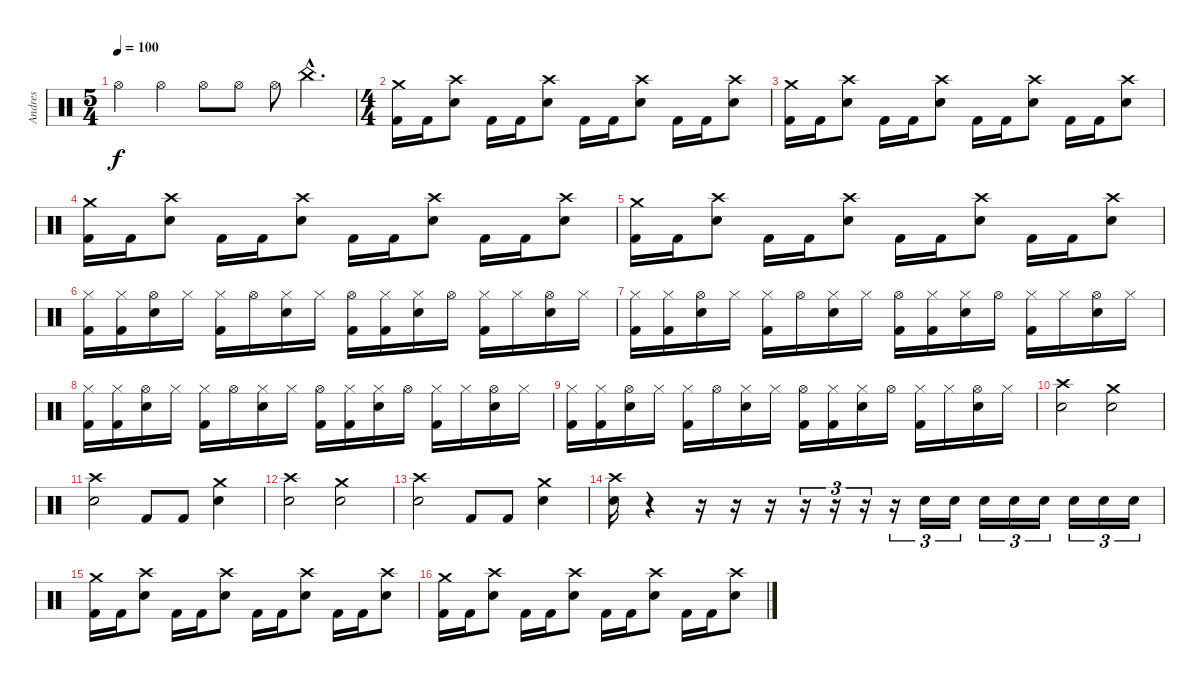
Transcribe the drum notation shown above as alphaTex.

\track ("Andres" "Andres") {instrument percussion}
\staff {score}
\articulation defaults
\ts (5 4)
\tempo 100
\clef neutral
\ks c "Hi-Hat (open)".4{dy f} "Hi-Hat (open)".4 "Hi-Hat (open)".8 "Hi-Hat (open)".8 "Hi-Hat (open)".8 "China (hit)"{hac}.4{d}
|
\ts (4 4)
("Crash medium (hit)" "Kick (hit) 2").16 "Kick (hit) 2".16 ("Crash high (hit)" "Electric Snare (hit)").8 "Kick (hit) 2".16 "Kick (hit) 2".16 ("Crash high (hit)" "Electric Snare (hit)").8 "Kick (hit) 2".16 "Kick (hit) 2".16 ("Crash high (hit)" "Electric Snare (hit)").8 "Kick (hit) 2".16 "Kick (hit) 2".16 ("Crash high (hit)" "Electric Snare (hit)").8 |
("Crash medium (hit)" "Kick (hit) 2").16 "Kick (hit) 2".16 ("Crash high (hit)" "Electric Snare (hit)").8 "Kick (hit) 2".16 "Kick (hit) 2".16 ("Crash high (hit)" "Electric Snare (hit)").8 "Kick (hit) 2".16 "Kick (hit) 2".16 ("Crash high (hit)" "Electric Snare (hit)").8 "Kick (hit) 2".16 "Kick (hit) 2".16 ("Crash high (hit)" "Electric Snare (hit)").8 |
("Crash medium (hit)" "Kick (hit) 2").16 "Kick (hit) 2".16 ("Crash high (hit)" "Electric Snare (hit)").8 "Kick (hit) 2".16 "Kick (hit) 2".16 ("Crash high (hit)" "Electric Snare (hit)").8 "Kick (hit) 2".16 "Kick (hit) 2".16 ("Crash high (hit)" "Electric Snare (hit)").8 "Kick (hit) 2".16 "Kick (hit) 2".16 ("Crash high (hit)" "Electric Snare (hit)").8 |
("Crash medium (hit)" "Kick (hit) 2").16 "Kick (hit) 2".16 ("Crash high (hit)" "Electric Snare (hit)").8 "Kick (hit) 2".16 "Kick (hit) 2".16 ("Crash high (hit)" "Electric Snare (hit)").8 "Kick (hit) 2".16 "Kick (hit) 2".16 ("Crash high (hit)" "Electric Snare (hit)").8 "Kick (hit) 2".16 "Kick (hit) 2".16 ("Crash high (hit)" "Electric Snare (hit)").8 |
("Hi-Hat (closed)" "Kick (hit) 2").16 ("Hi-Hat (closed)" "Kick (hit) 2").16 ("Hi-Hat (open)" "Electric Snare (hit)").16 "Hi-Hat (closed)".16 ("Hi-Hat (closed)" "Kick (hit) 2").16 "Hi-Hat (open)".16 ("Hi-Hat (closed)" "Electric Snare (hit)").16 "Hi-Hat (closed)".16 ("Hi-Hat (open)" "Kick (hit) 2").16 ("Hi-Hat (closed)" "Kick (hit) 2").16 ("Hi-Hat (closed)" "Electric Snare (hit)").16 "Hi-Hat (open)".16 ("Hi-Hat (closed)" "Kick (hit) 2").16 "Hi-Hat (closed)".16 ("Hi-Hat (open)" "Electric Snare (hit)").16 "Hi-Hat (closed)".16 |
("Hi-Hat (closed)" "Kick (hit) 2").16 ("Hi-Hat (closed)" "Kick (hit) 2").16 ("Hi-Hat (open)" "Electric Snare (hit)").16 "Hi-Hat (closed)".16 ("Hi-Hat (closed)" "Kick (hit) 2").16 "Hi-Hat (open)".16 ("Hi-Hat (closed)" "Electric Snare (hit)").16 "Hi-Hat (closed)".16 ("Hi-Hat (open)" "Kick (hit) 2").16 ("Hi-Hat (closed)" "Kick (hit) 2").16 ("Hi-Hat (closed)" "Electric Snare (hit)").16 "Hi-Hat (open)".16 ("Hi-Hat (closed)" "Kick (hit) 2").16 "Hi-Hat (closed)".16 ("Hi-Hat (open)" "Electric Snare (hit)").16 "Hi-Hat (closed)".16 |
("Hi-Hat (closed)" "Kick (hit) 2").16 ("Hi-Hat (closed)" "Kick (hit) 2").16 ("Hi-Hat (open)" "Electric Snare (hit)").16 "Hi-Hat (closed)".16 ("Hi-Hat (closed)" "Kick (hit) 2").16 "Hi-Hat (open)".16 ("Hi-Hat (closed)" "Electric Snare (hit)").16 "Hi-Hat (closed)".16 ("Hi-Hat (open)" "Kick (hit) 2").16 ("Hi-Hat (closed)" "Kick (hit) 2").16 ("Hi-Hat (closed)" "Electric Snare (hit)").16 "Hi-Hat (open)".16 ("Hi-Hat (closed)" "Kick (hit) 2").16 "Hi-Hat (closed)".16 ("Hi-Hat (open)" "Electric Snare (hit)").16 "Hi-Hat (closed)".16 |
("Hi-Hat (closed)" "Kick (hit) 2").16 ("Hi-Hat (closed)" "Kick (hit) 2").16 ("Hi-Hat (open)" "Electric Snare (hit)").16 "Hi-Hat (closed)".16 ("Hi-Hat (closed)" "Kick (hit) 2").16 "Hi-Hat (open)".16 ("Hi-Hat (closed)" "Electric Snare (hit)").16 "Hi-Hat (closed)".16 ("Hi-Hat (open)" "Kick (hit) 2").16 ("Hi-Hat (closed)" "Kick (hit) 2").16 ("Hi-Hat (closed)" "Electric Snare (hit)").16 "Hi-Hat (open)".16 ("Hi-Hat (closed)" "Kick (hit) 2").16 "Hi-Hat (closed)".16 ("Hi-Hat (open)" "Electric Snare (hit)").16 "Hi-Hat (closed)".16 |
("Crash high (hit)" "Electric Snare (hit)").2 ("Crash medium (hit)" "Electric Snare (hit)").2 |
("Crash high (hit)" "Electric Snare (hit)").2 "Kick (hit) 2".8 "Kick (hit) 2".8 ("Crash medium (hit)" "Electric Snare (hit)").4 |
("Crash high (hit)" "Electric Snare (hit)").2 ("Crash medium (hit)" "Electric Snare (hit)").2 |
("Crash high (hit)" "Electric Snare (hit)").2 "Kick (hit) 2".8 "Kick (hit) 2".8 ("Crash medium (hit)" "Electric Snare (hit)").4 |
("Crash high (hit)" "Electric Snare (hit)").16 r.4 r.16 r.16 r.16 r.16{tu (3 2)} r.16{tu (3 2)} r.16{tu (3 2)} r.16{tu (3 2)} "Electric Snare (hit)".16{tu (3 2)} "Electric Snare (hit)".16{tu (3 2)} "Electric Snare (hit)".16{tu (3 2)} "Electric Snare (hit)".16{tu (3 2)} "Electric Snare (hit)".16{tu (3 2)} "Electric Snare (hit)".16{tu (3 2)} "Electric Snare (hit)".16{tu (3 2)} "Electric Snare (hit)".16{tu (3 2)} |
("Crash medium (hit)" "Kick (hit) 2").16 "Kick (hit) 2".16 ("Crash high (hit)" "Electric Snare (hit)").8 "Kick (hit) 2".16 "Kick (hit) 2".16 ("Crash high (hit)" "Electric Snare (hit)").8 "Kick (hit) 2".16 "Kick (hit) 2".16 ("Crash high (hit)" "Electric Snare (hit)").8 "Kick (hit) 2".16 "Kick (hit) 2".16 ("Crash high (hit)" "Electric Snare (hit)").8 |
("Crash medium (hit)" "Kick (hit) 2").16 "Kick (hit) 2".16 ("Crash high (hit)" "Electric Snare (hit)").8 "Kick (hit) 2".16 "Kick (hit) 2".16 ("Crash high (hit)" "Electric Snare (hit)").8 "Kick (hit) 2".16 "Kick (hit) 2".16 ("Crash high (hit)" "Electric Snare (hit)").8 "Kick (hit) 2".16 "Kick (hit) 2".16 ("Crash high (hit)" "Electric Snare (hit)").8
